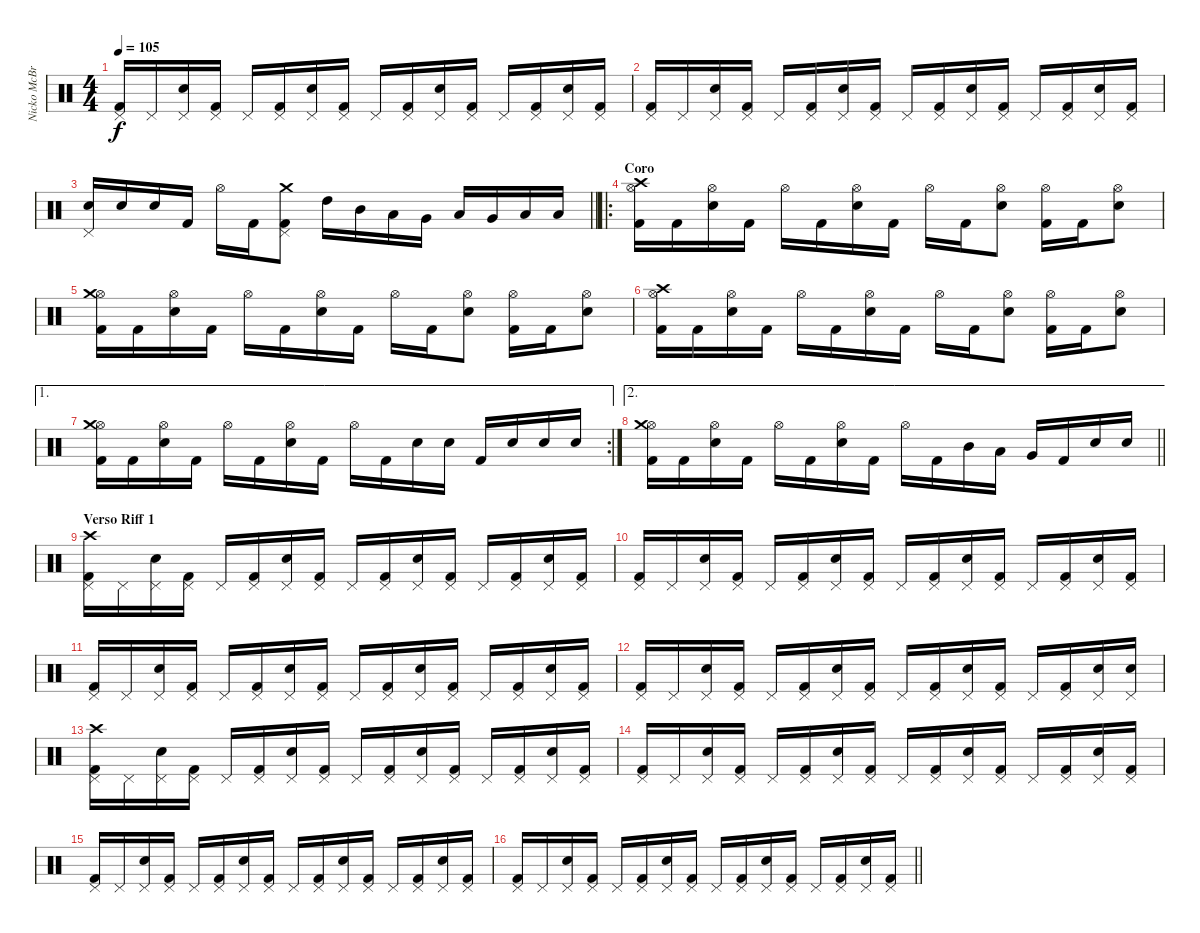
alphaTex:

\track ("Nicko McBrain" "Nicko McBr") {instrument percussion}
\staff {score}
\articulation defaults
\ts (4 4)
\tempo 105
\clef neutral
\ks c
("Kick (hit) 2" "Pedal Hi-Hat (hit)").16{dy f} "Pedal Hi-Hat (hit)".16 ("Snare (hit) 2" "Pedal Hi-Hat (hit)").16 ("Kick (hit) 2" "Pedal Hi-Hat (hit)").16 "Pedal Hi-Hat (hit)".16 ("Kick (hit) 2" "Pedal Hi-Hat (hit)").16 ("Snare (hit) 2" "Pedal Hi-Hat (hit)").16 ("Kick (hit) 2" "Pedal Hi-Hat (hit)").16 "Pedal Hi-Hat (hit)".16 ("Kick (hit) 2" "Pedal Hi-Hat (hit)").16 ("Snare (hit) 2" "Pedal Hi-Hat (hit)").16 ("Kick (hit) 2" "Pedal Hi-Hat (hit)").16 "Pedal Hi-Hat (hit)".16 ("Kick (hit) 2" "Pedal Hi-Hat (hit)").16 ("Snare (hit) 2" "Pedal Hi-Hat (hit)").16 ("Kick (hit) 2" "Pedal Hi-Hat (hit)").16 |
("Kick (hit) 2" "Pedal Hi-Hat (hit)").16 "Pedal Hi-Hat (hit)".16 ("Snare (hit) 2" "Pedal Hi-Hat (hit)").16 ("Kick (hit) 2" "Pedal Hi-Hat (hit)").16 "Pedal Hi-Hat (hit)".16 ("Kick (hit) 2" "Pedal Hi-Hat (hit)").16 ("Snare (hit) 2" "Pedal Hi-Hat (hit)").16 ("Kick (hit) 2" "Pedal Hi-Hat (hit)").16 "Pedal Hi-Hat (hit)".16 ("Kick (hit) 2" "Pedal Hi-Hat (hit)").16 ("Snare (hit) 2" "Pedal Hi-Hat (hit)").16 ("Kick (hit) 2" "Pedal Hi-Hat (hit)").16 "Pedal Hi-Hat (hit)".16 ("Kick (hit) 2" "Pedal Hi-Hat (hit)").16 ("Snare (hit) 2" "Pedal Hi-Hat (hit)").16 ("Kick (hit) 2" "Pedal Hi-Hat (hit)").16 |
\barLineRight lightlight
("Snare (hit) 2" "Pedal Hi-Hat (hit)").16 "Snare (hit) 2".16 "Snare (hit) 2".16 "Kick (hit) 2".16 "Hi-Hat (open)".16 "Kick (hit) 2".16 ("Kick (hit) 2" "Pedal Hi-Hat (hit)" "Crash medium (hit)").8 "High Tom (hit)".16 "Mid Tom (hit)".16 "Low Tom (hit)".16 "Very Low Tom (hit)".16 "Low Tom (hit)".16 "Very Low Tom (hit)".16 "Low Floor Tom (hit)".16 "Low Floor Tom (hit)".16 |
\ro
\section ("" "Coro")
("Kick (hit) 2" "Hi-Hat (open)" "Crash high (hit)").16 "Kick (hit) 2".16 ("Snare (hit) 2" "Hi-Hat (open)").16 "Kick (hit) 2".16 "Hi-Hat (open)".16 "Kick (hit) 2".16 ("Snare (hit) 2" "Hi-Hat (open)").16 "Kick (hit) 2".16 "Hi-Hat (open)".16 "Kick (hit) 2".16 ("Snare (hit) 2" "Hi-Hat (open)").8 ("Kick (hit) 2" "Hi-Hat (open)").16 "Kick (hit) 2".16 ("Snare (hit) 2" "Hi-Hat (open)").8 |
("Kick (hit) 2" "Hi-Hat (open)" "Crash medium (hit)").16 "Kick (hit) 2".16 ("Snare (hit) 2" "Hi-Hat (open)").16 "Kick (hit) 2".16 "Hi-Hat (open)".16 "Kick (hit) 2".16 ("Snare (hit) 2" "Hi-Hat (open)").16 "Kick (hit) 2".16 "Hi-Hat (open)".16 "Kick (hit) 2".16 ("Snare (hit) 2" "Hi-Hat (open)").8 ("Kick (hit) 2" "Hi-Hat (open)").16 "Kick (hit) 2".16 ("Snare (hit) 2" "Hi-Hat (open)").8 |
("Kick (hit) 2" "Hi-Hat (open)" "Crash high (hit)").16 "Kick (hit) 2".16 ("Snare (hit) 2" "Hi-Hat (open)").16 "Kick (hit) 2".16 "Hi-Hat (open)".16 "Kick (hit) 2".16 ("Snare (hit) 2" "Hi-Hat (open)").16 "Kick (hit) 2".16 "Hi-Hat (open)".16 "Kick (hit) 2".16 ("Snare (hit) 2" "Hi-Hat (open)").8 ("Kick (hit) 2" "Hi-Hat (open)").16 "Kick (hit) 2".16 ("Snare (hit) 2" "Hi-Hat (open)").8 |
\ae 1
\rc 2
("Kick (hit) 2" "Hi-Hat (open)" "Crash medium (hit)").16 "Kick (hit) 2".16 ("Snare (hit) 2" "Hi-Hat (open)").16 "Kick (hit) 2".16 "Hi-Hat (open)".16 "Kick (hit) 2".16 ("Snare (hit) 2" "Hi-Hat (open)").16 "Kick (hit) 2".16 "Hi-Hat (open)".16 "Kick (hit) 2".16 "Snare (hit) 2".16 "Snare (hit) 2".16 "Kick (hit) 2".16 "Snare (hit) 2".16 "Snare (hit) 2".16 "Snare (hit) 2".16 |
\ae 2
\barLineRight lightlight
("Kick (hit) 2" "Hi-Hat (open)" "Crash medium (hit)").16 "Kick (hit) 2".16 ("Snare (hit) 2" "Hi-Hat (open)").16 "Kick (hit) 2".16 "Hi-Hat (open)".16 "Kick (hit) 2".16 ("Snare (hit) 2" "Hi-Hat (open)").16 "Kick (hit) 2".16 "Hi-Hat (open)".16 "Kick (hit) 2".16 "Mid Tom (hit)".16 "Low Tom (hit)".16 "Very Low Tom (hit)".16 "Kick (hit) 2".16 "Snare (hit) 2".16 "Snare (hit) 2".16 |
\section ("" "Verso Riff 1")
("Kick (hit) 2" "Pedal Hi-Hat (hit)" "Crash high (hit)").16 "Pedal Hi-Hat (hit)".16 ("Snare (hit) 2" "Pedal Hi-Hat (hit)").16 ("Kick (hit) 2" "Pedal Hi-Hat (hit)").16 "Pedal Hi-Hat (hit)".16 ("Kick (hit) 2" "Pedal Hi-Hat (hit)").16 ("Snare (hit) 2" "Pedal Hi-Hat (hit)").16 ("Kick (hit) 2" "Pedal Hi-Hat (hit)").16 "Pedal Hi-Hat (hit)".16 ("Kick (hit) 2" "Pedal Hi-Hat (hit)").16 ("Snare (hit) 2" "Pedal Hi-Hat (hit)").16 ("Kick (hit) 2" "Pedal Hi-Hat (hit)").16 "Pedal Hi-Hat (hit)".16 ("Kick (hit) 2" "Pedal Hi-Hat (hit)").16 ("Snare (hit) 2" "Pedal Hi-Hat (hit)").16 ("Kick (hit) 2" "Pedal Hi-Hat (hit)").16 |
("Kick (hit) 2" "Pedal Hi-Hat (hit)").16 "Pedal Hi-Hat (hit)".16 ("Snare (hit) 2" "Pedal Hi-Hat (hit)").16 ("Kick (hit) 2" "Pedal Hi-Hat (hit)").16 "Pedal Hi-Hat (hit)".16 ("Kick (hit) 2" "Pedal Hi-Hat (hit)").16 ("Snare (hit) 2" "Pedal Hi-Hat (hit)").16 ("Kick (hit) 2" "Pedal Hi-Hat (hit)").16 "Pedal Hi-Hat (hit)".16 ("Kick (hit) 2" "Pedal Hi-Hat (hit)").16 ("Snare (hit) 2" "Pedal Hi-Hat (hit)").16 ("Kick (hit) 2" "Pedal Hi-Hat (hit)").16 "Pedal Hi-Hat (hit)".16 ("Kick (hit) 2" "Pedal Hi-Hat (hit)").16 ("Snare (hit) 2" "Pedal Hi-Hat (hit)").16 ("Kick (hit) 2" "Pedal Hi-Hat (hit)").16 |
("Kick (hit) 2" "Pedal Hi-Hat (hit)").16 "Pedal Hi-Hat (hit)".16 ("Snare (hit) 2" "Pedal Hi-Hat (hit)").16 ("Kick (hit) 2" "Pedal Hi-Hat (hit)").16 "Pedal Hi-Hat (hit)".16 ("Kick (hit) 2" "Pedal Hi-Hat (hit)").16 ("Snare (hit) 2" "Pedal Hi-Hat (hit)").16 ("Kick (hit) 2" "Pedal Hi-Hat (hit)").16 "Pedal Hi-Hat (hit)".16 ("Kick (hit) 2" "Pedal Hi-Hat (hit)").16 ("Snare (hit) 2" "Pedal Hi-Hat (hit)").16 ("Kick (hit) 2" "Pedal Hi-Hat (hit)").16 "Pedal Hi-Hat (hit)".16 ("Kick (hit) 2" "Pedal Hi-Hat (hit)").16 ("Snare (hit) 2" "Pedal Hi-Hat (hit)").16 ("Kick (hit) 2" "Pedal Hi-Hat (hit)").16 |
("Kick (hit) 2" "Pedal Hi-Hat (hit)").16 "Pedal Hi-Hat (hit)".16 ("Snare (hit) 2" "Pedal Hi-Hat (hit)").16 ("Kick (hit) 2" "Pedal Hi-Hat (hit)").16 "Pedal Hi-Hat (hit)".16 ("Kick (hit) 2" "Pedal Hi-Hat (hit)").16 ("Snare (hit) 2" "Pedal Hi-Hat (hit)").16 ("Kick (hit) 2" "Pedal Hi-Hat (hit)").16 "Pedal Hi-Hat (hit)".16 ("Kick (hit) 2" "Pedal Hi-Hat (hit)").16 ("Snare (hit) 2" "Pedal Hi-Hat (hit)").16 ("Kick (hit) 2" "Pedal Hi-Hat (hit)").16 "Pedal Hi-Hat (hit)".16 ("Kick (hit) 2" "Pedal Hi-Hat (hit)").16 ("Snare (hit) 2" "Pedal Hi-Hat (hit)").16 ("Snare (hit) 2" "Pedal Hi-Hat (hit)").16 |
("Kick (hit) 2" "Pedal Hi-Hat (hit)" "Crash high (hit)").16 "Pedal Hi-Hat (hit)".16 ("Snare (hit) 2" "Pedal Hi-Hat (hit)").16 ("Kick (hit) 2" "Pedal Hi-Hat (hit)").16 "Pedal Hi-Hat (hit)".16 ("Kick (hit) 2" "Pedal Hi-Hat (hit)").16 ("Snare (hit) 2" "Pedal Hi-Hat (hit)").16 ("Kick (hit) 2" "Pedal Hi-Hat (hit)").16 "Pedal Hi-Hat (hit)".16 ("Kick (hit) 2" "Pedal Hi-Hat (hit)").16 ("Snare (hit) 2" "Pedal Hi-Hat (hit)").16 ("Kick (hit) 2" "Pedal Hi-Hat (hit)").16 "Pedal Hi-Hat (hit)".16 ("Kick (hit) 2" "Pedal Hi-Hat (hit)").16 ("Snare (hit) 2" "Pedal Hi-Hat (hit)").16 ("Kick (hit) 2" "Pedal Hi-Hat (hit)").16 |
("Kick (hit) 2" "Pedal Hi-Hat (hit)").16 "Pedal Hi-Hat (hit)".16 ("Snare (hit) 2" "Pedal Hi-Hat (hit)").16 ("Kick (hit) 2" "Pedal Hi-Hat (hit)").16 "Pedal Hi-Hat (hit)".16 ("Kick (hit) 2" "Pedal Hi-Hat (hit)").16 ("Snare (hit) 2" "Pedal Hi-Hat (hit)").16 ("Kick (hit) 2" "Pedal Hi-Hat (hit)").16 "Pedal Hi-Hat (hit)".16 ("Kick (hit) 2" "Pedal Hi-Hat (hit)").16 ("Snare (hit) 2" "Pedal Hi-Hat (hit)").16 ("Kick (hit) 2" "Pedal Hi-Hat (hit)").16 "Pedal Hi-Hat (hit)".16 ("Kick (hit) 2" "Pedal Hi-Hat (hit)").16 ("Snare (hit) 2" "Pedal Hi-Hat (hit)").16 ("Kick (hit) 2" "Pedal Hi-Hat (hit)").16 |
("Kick (hit) 2" "Pedal Hi-Hat (hit)").16 "Pedal Hi-Hat (hit)".16 ("Snare (hit) 2" "Pedal Hi-Hat (hit)").16 ("Kick (hit) 2" "Pedal Hi-Hat (hit)").16 "Pedal Hi-Hat (hit)".16 ("Kick (hit) 2" "Pedal Hi-Hat (hit)").16 ("Snare (hit) 2" "Pedal Hi-Hat (hit)").16 ("Kick (hit) 2" "Pedal Hi-Hat (hit)").16 "Pedal Hi-Hat (hit)".16 ("Kick (hit) 2" "Pedal Hi-Hat (hit)").16 ("Snare (hit) 2" "Pedal Hi-Hat (hit)").16 ("Kick (hit) 2" "Pedal Hi-Hat (hit)").16 "Pedal Hi-Hat (hit)".16 ("Kick (hit) 2" "Pedal Hi-Hat (hit)").16 ("Snare (hit) 2" "Pedal Hi-Hat (hit)").16 ("Kick (hit) 2" "Pedal Hi-Hat (hit)").16 |
\barLineRight lightlight
("Kick (hit) 2" "Pedal Hi-Hat (hit)").16 "Pedal Hi-Hat (hit)".16 ("Snare (hit) 2" "Pedal Hi-Hat (hit)").16 ("Kick (hit) 2" "Pedal Hi-Hat (hit)").16 "Pedal Hi-Hat (hit)".16 ("Kick (hit) 2" "Pedal Hi-Hat (hit)").16 ("Snare (hit) 2" "Pedal Hi-Hat (hit)").16 ("Kick (hit) 2" "Pedal Hi-Hat (hit)").16 "Pedal Hi-Hat (hit)".16 ("Kick (hit) 2" "Pedal Hi-Hat (hit)").16 ("Snare (hit) 2" "Pedal Hi-Hat (hit)").16 ("Kick (hit) 2" "Pedal Hi-Hat (hit)").16 "Pedal Hi-Hat (hit)".16 ("Kick (hit) 2" "Pedal Hi-Hat (hit)").16 ("Snare (hit) 2" "Pedal Hi-Hat (hit)").16 ("Kick (hit) 2" "Pedal Hi-Hat (hit)").16
